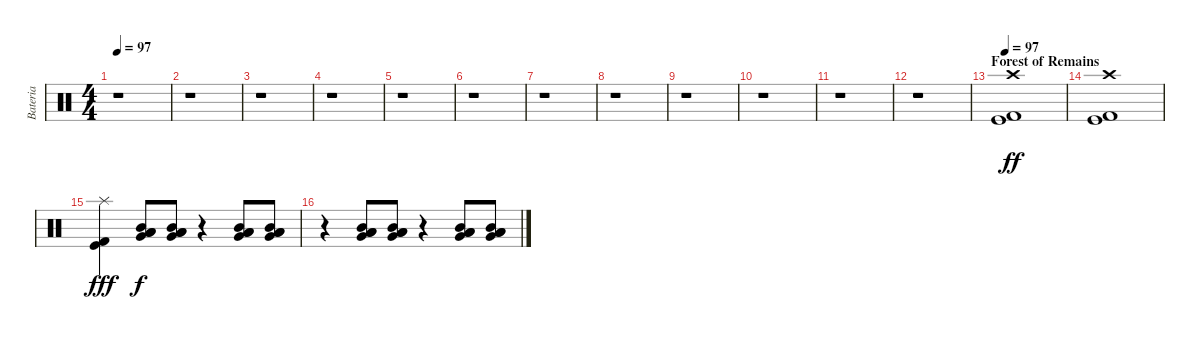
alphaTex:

\track ("Bateria" "Bateria") {instrument percussion}
\staff {score}
\articulation defaults
\ts (4 4)
\tempo 97
\clef neutral
\ks c
r.1{dy ff} |
r.1 |
r.1 |
r.1 |
r.1 |
r.1 |
r.1 |
r.1 |
r.1 |
r.1 |
r.1 |
r.1 |
\section ("" "Forest of Remains")
\tempo 97
("Crash high (hit)" "Kick (hit) 2" "Kick (hit)").1 |
("Crash high (hit)" "Kick (hit) 2" "Kick (hit)").1 |
("Splash (hit)" "Kick (hit) 2" "Kick (hit)").4{dy fff} ("Mid Tom (hit)" "Very Low Tom (hit)" "Low Tom (hit)" "Low Floor Tom (hit)").8{dy f} ("Mid Tom (hit)" "Very Low Tom (hit)" "Low Tom (hit)" "Low Floor Tom (hit)").8 r.4 ("Mid Tom (hit)" "Very Low Tom (hit)" "Low Tom (hit)" "Low Floor Tom (hit)").8 ("Mid Tom (hit)" "Very Low Tom (hit)" "Low Tom (hit)" "Low Floor Tom (hit)").8 |
r.4 ("Mid Tom (hit)" "Very Low Tom (hit)" "Low Tom (hit)" "Low Floor Tom (hit)").8 ("Mid Tom (hit)" "Very Low Tom (hit)" "Low Tom (hit)" "Low Floor Tom (hit)").8 r.4 ("Mid Tom (hit)" "Very Low Tom (hit)" "Low Tom (hit)" "Low Floor Tom (hit)").8 ("Mid Tom (hit)" "Very Low Tom (hit)" "Low Tom (hit)" "Low Floor Tom (hit)").8
